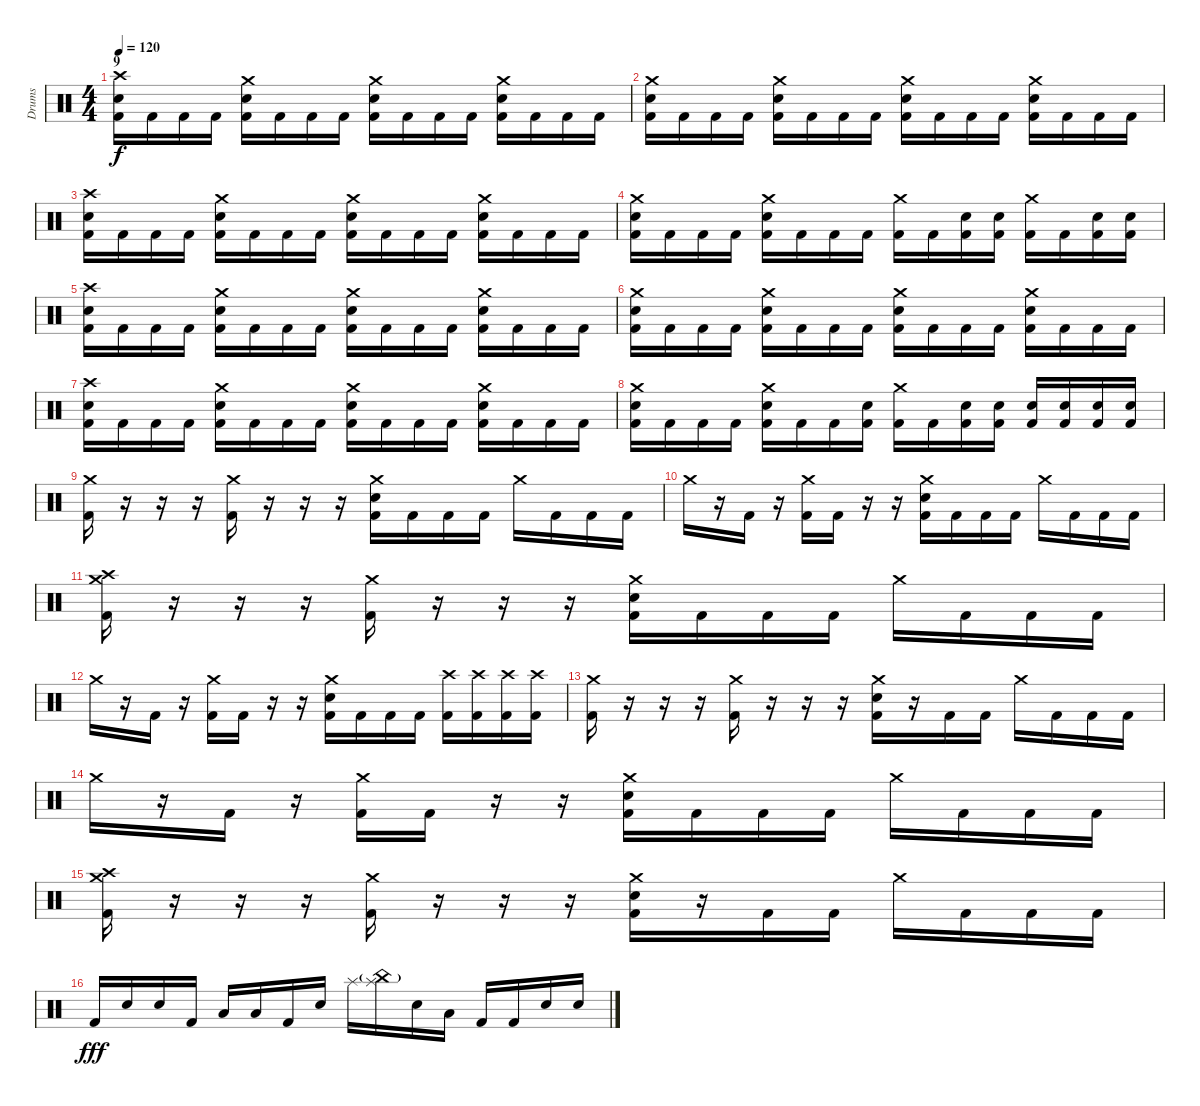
\track ("Drums" "Drums") {instrument percussion}
\staff {score}
\articulation defaults
\ts (4 4)
\section ("" "9")
\tempo 120
\clef neutral
\ks c
("Crash high (hit)" "Electric Snare (hit)" "Kick (hit) 2").16{dy f} "Kick (hit) 2".16 "Kick (hit) 2".16 "Kick (hit) 2".16 ("Crash medium (hit)" "Electric Snare (hit)" "Kick (hit) 2").16 "Kick (hit) 2".16 "Kick (hit) 2".16 "Kick (hit) 2".16 ("Crash medium (hit)" "Electric Snare (hit)" "Kick (hit) 2").16 "Kick (hit) 2".16 "Kick (hit) 2".16 "Kick (hit) 2".16 ("Crash medium (hit)" "Electric Snare (hit)" "Kick (hit) 2").16 "Kick (hit) 2".16 "Kick (hit) 2".16 "Kick (hit) 2".16 |
("Crash medium (hit)" "Electric Snare (hit)" "Kick (hit) 2").16 "Kick (hit) 2".16 "Kick (hit) 2".16 "Kick (hit) 2".16 ("Crash medium (hit)" "Electric Snare (hit)" "Kick (hit) 2").16 "Kick (hit) 2".16 "Kick (hit) 2".16 "Kick (hit) 2".16 ("Crash medium (hit)" "Electric Snare (hit)" "Kick (hit) 2").16 "Kick (hit) 2".16 "Kick (hit) 2".16 "Kick (hit) 2".16 ("Crash medium (hit)" "Electric Snare (hit)" "Kick (hit) 2").16 "Kick (hit) 2".16 "Kick (hit) 2".16 "Kick (hit) 2".16 |
("Crash high (hit)" "Electric Snare (hit)" "Kick (hit) 2").16 "Kick (hit) 2".16 "Kick (hit) 2".16 "Kick (hit) 2".16 ("Crash medium (hit)" "Electric Snare (hit)" "Kick (hit) 2").16 "Kick (hit) 2".16 "Kick (hit) 2".16 "Kick (hit) 2".16 ("Crash medium (hit)" "Electric Snare (hit)" "Kick (hit) 2").16 "Kick (hit) 2".16 "Kick (hit) 2".16 "Kick (hit) 2".16 ("Crash medium (hit)" "Electric Snare (hit)" "Kick (hit) 2").16 "Kick (hit) 2".16 "Kick (hit) 2".16 "Kick (hit) 2".16 |
("Crash medium (hit)" "Electric Snare (hit)" "Kick (hit) 2").16 "Kick (hit) 2".16 "Kick (hit) 2".16 "Kick (hit) 2".16 ("Crash medium (hit)" "Electric Snare (hit)" "Kick (hit) 2").16 "Kick (hit) 2".16 "Kick (hit) 2".16 "Kick (hit) 2".16 ("Crash medium (hit)" "Kick (hit) 2").16 "Kick (hit) 2".16 ("Electric Snare (hit)" "Kick (hit) 2").16 ("Electric Snare (hit)" "Kick (hit) 2").16 ("Crash medium (hit)" "Kick (hit) 2").16 "Kick (hit) 2".16 ("Electric Snare (hit)" "Kick (hit) 2").16 ("Electric Snare (hit)" "Kick (hit) 2").16 |
("Crash high (hit)" "Electric Snare (hit)" "Kick (hit) 2").16 "Kick (hit) 2".16 "Kick (hit) 2".16 "Kick (hit) 2".16 ("Crash medium (hit)" "Electric Snare (hit)" "Kick (hit) 2").16 "Kick (hit) 2".16 "Kick (hit) 2".16 "Kick (hit) 2".16 ("Crash medium (hit)" "Electric Snare (hit)" "Kick (hit) 2").16 "Kick (hit) 2".16 "Kick (hit) 2".16 "Kick (hit) 2".16 ("Crash medium (hit)" "Electric Snare (hit)" "Kick (hit) 2").16 "Kick (hit) 2".16 "Kick (hit) 2".16 "Kick (hit) 2".16 |
("Crash medium (hit)" "Electric Snare (hit)" "Kick (hit) 2").16 "Kick (hit) 2".16 "Kick (hit) 2".16 "Kick (hit) 2".16 ("Crash medium (hit)" "Electric Snare (hit)" "Kick (hit) 2").16 "Kick (hit) 2".16 "Kick (hit) 2".16 "Kick (hit) 2".16 ("Crash medium (hit)" "Electric Snare (hit)" "Kick (hit) 2").16 "Kick (hit) 2".16 "Kick (hit) 2".16 "Kick (hit) 2".16 ("Crash medium (hit)" "Electric Snare (hit)" "Kick (hit) 2").16 "Kick (hit) 2".16 "Kick (hit) 2".16 "Kick (hit) 2".16 |
("Crash high (hit)" "Electric Snare (hit)" "Kick (hit) 2").16 "Kick (hit) 2".16 "Kick (hit) 2".16 "Kick (hit) 2".16 ("Crash medium (hit)" "Electric Snare (hit)" "Kick (hit) 2").16 "Kick (hit) 2".16 "Kick (hit) 2".16 "Kick (hit) 2".16 ("Crash medium (hit)" "Electric Snare (hit)" "Kick (hit) 2").16 "Kick (hit) 2".16 "Kick (hit) 2".16 "Kick (hit) 2".16 ("Crash medium (hit)" "Electric Snare (hit)" "Kick (hit) 2").16 "Kick (hit) 2".16 "Kick (hit) 2".16 "Kick (hit) 2".16 |
("Crash medium (hit)" "Electric Snare (hit)" "Kick (hit) 2").16 "Kick (hit) 2".16 "Kick (hit) 2".16 "Kick (hit) 2".16 ("Crash medium (hit)" "Electric Snare (hit)" "Kick (hit) 2").16 "Kick (hit) 2".16 "Kick (hit) 2".16 ("Electric Snare (hit)" "Kick (hit) 2").16 ("Crash medium (hit)" "Kick (hit) 2").16 "Kick (hit) 2".16 ("Electric Snare (hit)" "Kick (hit) 2").16 ("Electric Snare (hit)" "Kick (hit) 2").16 ("Electric Snare (hit)" "Kick (hit) 2").16 ("Electric Snare (hit)" "Kick (hit) 2").16 ("Electric Snare (hit)" "Kick (hit) 2").16 ("Electric Snare (hit)" "Kick (hit) 2").16 |
("Crash medium (hit)" "Kick (hit) 2").16 r.16 r.16 r.16 ("Crash medium (hit)" "Kick (hit) 2").16 r.16 r.16 r.16 ("Crash medium (hit)" "Electric Snare (hit)" "Kick (hit) 2").16 "Kick (hit) 2".16 "Kick (hit) 2".16 "Kick (hit) 2".16 "Crash medium (hit)".16 "Kick (hit) 2".16 "Kick (hit) 2".16 "Kick (hit) 2".16 |
"Crash medium (hit)".16 r.16 "Kick (hit) 2".16 r.16 ("Crash medium (hit)" "Kick (hit) 2").16 "Kick (hit) 2".16 r.16 r.16 ("Crash medium (hit)" "Electric Snare (hit)" "Kick (hit) 2").16 "Kick (hit) 2".16 "Kick (hit) 2".16 "Kick (hit) 2".16 "Crash medium (hit)".16 "Kick (hit) 2".16 "Kick (hit) 2".16 "Kick (hit) 2".16 |
("Crash medium (hit)" "Crash high (hit)" "Kick (hit) 2").16 r.16 r.16 r.16 ("Crash medium (hit)" "Kick (hit) 2").16 r.16 r.16 r.16 ("Crash medium (hit)" "Electric Snare (hit)" "Kick (hit) 2").16 "Kick (hit) 2".16 "Kick (hit) 2".16 "Kick (hit) 2".16 "Crash medium (hit)".16 "Kick (hit) 2".16 "Kick (hit) 2".16 "Kick (hit) 2".16 |
"Crash medium (hit)".16 r.16 "Kick (hit) 2".16 r.16 ("Crash medium (hit)" "Kick (hit) 2").16 "Kick (hit) 2".16 r.16 r.16 ("Crash medium (hit)" "Electric Snare (hit)" "Kick (hit) 2").16 "Kick (hit) 2".16 "Kick (hit) 2".16 "Kick (hit) 2".16 ("Crash high (hit)" "Kick (hit) 2").16 ("Crash high (hit)" "Kick (hit) 2").16 ("Crash high (hit)" "Kick (hit) 2").16 ("Crash high (hit)" "Kick (hit) 2").16 |
("Crash medium (hit)" "Kick (hit) 2").16 r.16 r.16 r.16 ("Crash medium (hit)" "Kick (hit) 2").16 r.16 r.16 r.16 ("Crash medium (hit)" "Electric Snare (hit)" "Kick (hit) 2").16 r.16 "Kick (hit) 2".16 "Kick (hit) 2".16 "Crash medium (hit)".16 "Kick (hit) 2".16 "Kick (hit) 2".16 "Kick (hit) 2".16 |
"Crash medium (hit)".16 r.16 "Kick (hit) 2".16 r.16 ("Crash medium (hit)" "Kick (hit) 2").16 "Kick (hit) 2".16 r.16 r.16 ("Crash medium (hit)" "Electric Snare (hit)" "Kick (hit) 2").16 "Kick (hit) 2".16 "Kick (hit) 2".16 "Kick (hit) 2".16 "Crash medium (hit)".16 "Kick (hit) 2".16 "Kick (hit) 2".16 "Kick (hit) 2".16 |
("Crash medium (hit)" "Crash high (hit)" "Kick (hit) 2").16 r.16 r.16 r.16 ("Crash medium (hit)" "Kick (hit) 2").16 r.16 r.16 r.16 ("Crash medium (hit)" "Electric Snare (hit)" "Kick (hit) 2").16 r.16 "Kick (hit) 2".16 "Kick (hit) 2".16 "Crash medium (hit)".16 "Kick (hit) 2".16 "Kick (hit) 2".16 "Kick (hit) 2".16 |
"Kick (hit) 2".16{dy fff} "Electric Snare (hit)".16 "Electric Snare (hit)".16 "Kick (hit) 2".16 "Low Floor Tom (hit)".16 "Low Floor Tom (hit)".16 "Kick (hit) 2".16 "Electric Snare (hit)".16 "Splash (hit)".16 ("China (hit)"{g} "Splash (hit)").16 "Electric Snare (hit)".16 "Low Floor Tom (hit)".16 "Kick (hit) 2".16 "Kick (hit) 2".16 "Electric Snare (hit)".16 "Electric Snare (hit)".16
